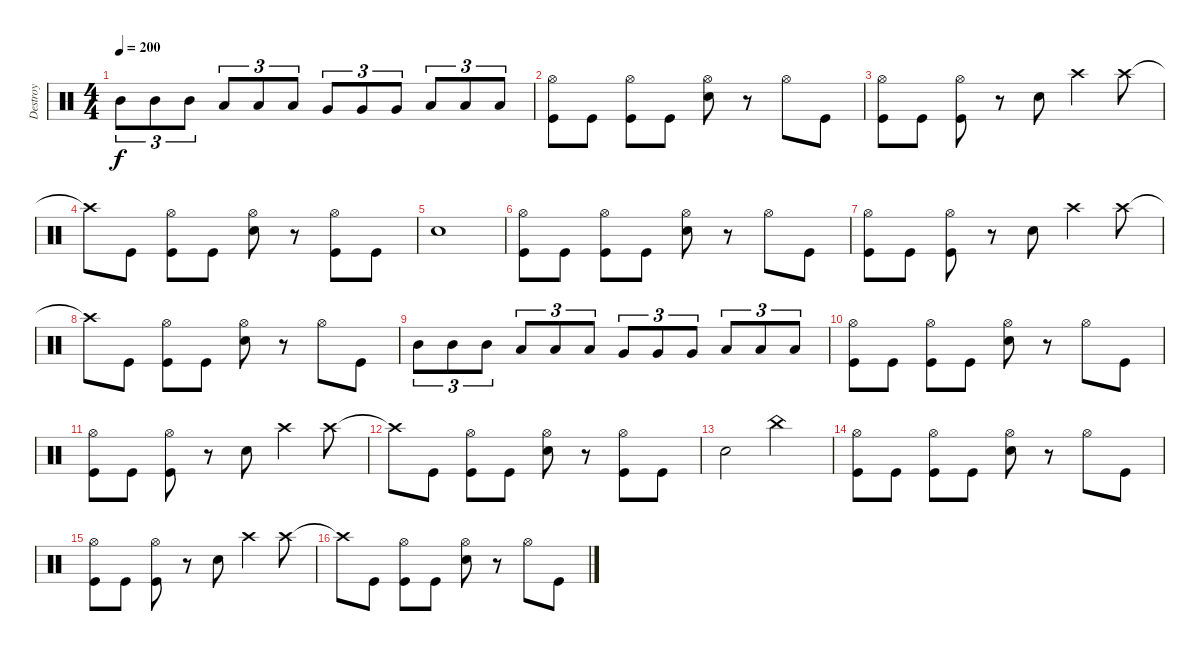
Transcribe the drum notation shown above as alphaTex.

\track ("Destroy" "Destroy") {instrument percussion}
\staff {score}
\articulation defaults
\ts (4 4)
\tempo 200
\clef neutral
\ks c "Mid Tom (hit)".8{tu (3 2) dy f} "Mid Tom (hit)".8{tu (3 2)} "Mid Tom (hit)".8{tu (3 2)} "Low Tom (hit)".8{tu (3 2)} "Low Tom (hit)".8{tu (3 2)} "Low Tom (hit)".8{tu (3 2)} "Very Low Tom (hit)".8{tu (3 2)} "Very Low Tom (hit)".8{tu (3 2)} "Very Low Tom (hit)".8{tu (3 2)} "Low Floor Tom (hit)".8{tu (3 2)} "Low Floor Tom (hit)".8{tu (3 2)} "Low Floor Tom (hit)".8{tu (3 2)}
|
("Hi-Hat (open)" "Kick (hit)").8 "Kick (hit)".8 ("Hi-Hat (open)" "Kick (hit)").8 "Kick (hit)".8 ("Hi-Hat (open)" "Snare (hit) 2").8 r.8 "Hi-Hat (open)".8 "Kick (hit)".8 |
("Hi-Hat (open)" "Kick (hit)").8 "Kick (hit)".8 ("Hi-Hat (open)" "Kick (hit)").8 r.8 "Snare (hit) 2".8 "Crash high (hit)".4 "Crash high (hit)".8 |
"Crash high (hit)"{t}.8 "Kick (hit)".8 ("Hi-Hat (open)" "Kick (hit)").8 "Kick (hit)".8 ("Hi-Hat (open)" "Snare (hit) 2").8 r.8 ("Hi-Hat (open)" "Kick (hit)").8 "Kick (hit)".8 |
"Snare (hit) 2".1 |
("Hi-Hat (open)" "Kick (hit)").8 "Kick (hit)".8 ("Hi-Hat (open)" "Kick (hit)").8 "Kick (hit)".8 ("Hi-Hat (open)" "Snare (hit) 2").8 r.8 "Hi-Hat (open)".8 "Kick (hit)".8 |
("Hi-Hat (open)" "Kick (hit)").8 "Kick (hit)".8 ("Hi-Hat (open)" "Kick (hit)").8 r.8 "Snare (hit) 2".8 "Crash high (hit)".4 "Crash high (hit)".8 |
"Crash high (hit)"{t}.8 "Kick (hit)".8 ("Hi-Hat (open)" "Kick (hit)").8 "Kick (hit)".8 ("Hi-Hat (open)" "Snare (hit) 2").8 r.8 "Hi-Hat (open)".8 "Kick (hit)".8 |
"Mid Tom (hit)".8{tu (3 2)} "Mid Tom (hit)".8{tu (3 2)} "Mid Tom (hit)".8{tu (3 2)} "Low Tom (hit)".8{tu (3 2)} "Low Tom (hit)".8{tu (3 2)} "Low Tom (hit)".8{tu (3 2)} "Very Low Tom (hit)".8{tu (3 2)} "Very Low Tom (hit)".8{tu (3 2)} "Very Low Tom (hit)".8{tu (3 2)} "Low Floor Tom (hit)".8{tu (3 2)} "Low Floor Tom (hit)".8{tu (3 2)} "Low Floor Tom (hit)".8{tu (3 2)} |
("Hi-Hat (open)" "Kick (hit)").8 "Kick (hit)".8 ("Hi-Hat (open)" "Kick (hit)").8 "Kick (hit)".8 ("Hi-Hat (open)" "Snare (hit) 2").8 r.8 "Hi-Hat (open)".8 "Kick (hit)".8 |
("Hi-Hat (open)" "Kick (hit)").8 "Kick (hit)".8 ("Hi-Hat (open)" "Kick (hit)").8 r.8 "Snare (hit) 2".8 "Crash high (hit)".4 "Crash high (hit)".8 |
"Crash high (hit)"{t}.8 "Kick (hit)".8 ("Hi-Hat (open)" "Kick (hit)").8 "Kick (hit)".8 ("Hi-Hat (open)" "Snare (hit) 2").8 r.8 ("Hi-Hat (open)" "Kick (hit)").8 "Kick (hit)".8 |
"Snare (hit) 2".2 "China (hit)".2 |
("Hi-Hat (open)" "Kick (hit)").8 "Kick (hit)".8 ("Hi-Hat (open)" "Kick (hit)").8 "Kick (hit)".8 ("Hi-Hat (open)" "Snare (hit) 2").8 r.8 "Hi-Hat (open)".8 "Kick (hit)".8 |
("Hi-Hat (open)" "Kick (hit)").8 "Kick (hit)".8 ("Hi-Hat (open)" "Kick (hit)").8 r.8 "Snare (hit) 2".8 "Crash high (hit)".4 "Crash high (hit)".8 |
"Crash high (hit)"{t}.8 "Kick (hit)".8 ("Hi-Hat (open)" "Kick (hit)").8 "Kick (hit)".8 ("Hi-Hat (open)" "Snare (hit) 2").8 r.8 "Hi-Hat (open)".8 "Kick (hit)".8
